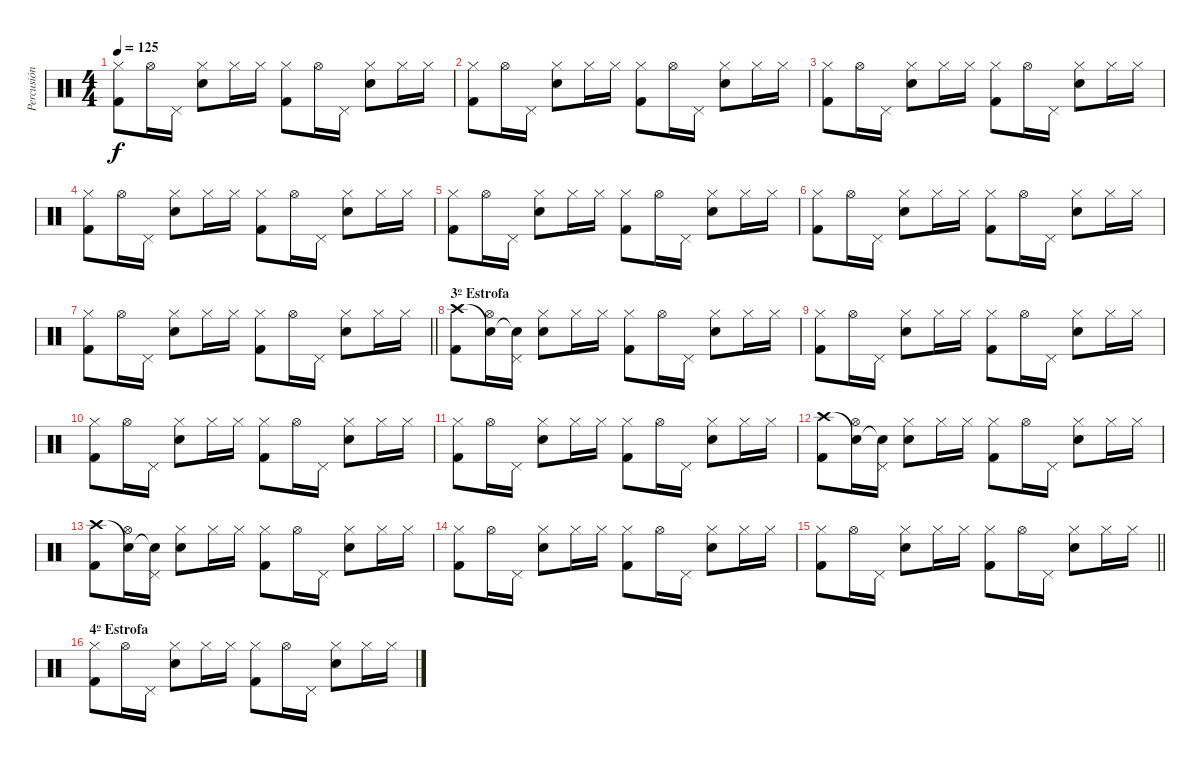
\track ("Percusión" "Percusión") {instrument percussion}
\staff {score}
\articulation defaults
\ts (4 4)
\tempo 125
\clef neutral
\ks c
("Hi-Hat (closed)" "Kick (hit) 2").8{dy f} "Hi-Hat (open)".16 "Pedal Hi-Hat (hit)".16 ("Hi-Hat (closed)" "Snare (hit) 2").8 "Hi-Hat (closed)".16 "Hi-Hat (closed)".16 ("Hi-Hat (closed)" "Kick (hit) 2").8 "Hi-Hat (open)".16 "Pedal Hi-Hat (hit)".16 ("Hi-Hat (closed)" "Snare (hit) 2").8 "Hi-Hat (closed)".16 "Hi-Hat (closed)".16 |
("Hi-Hat (closed)" "Kick (hit) 2").8 "Hi-Hat (open)".16 "Pedal Hi-Hat (hit)".16 ("Hi-Hat (closed)" "Snare (hit) 2").8 "Hi-Hat (closed)".16 "Hi-Hat (closed)".16 ("Hi-Hat (closed)" "Kick (hit) 2").8 "Hi-Hat (open)".16 "Pedal Hi-Hat (hit)".16 ("Hi-Hat (closed)" "Snare (hit) 2").8 "Hi-Hat (closed)".16 "Hi-Hat (closed)".16 |
("Hi-Hat (closed)" "Kick (hit) 2").8 "Hi-Hat (open)".16 "Pedal Hi-Hat (hit)".16 ("Hi-Hat (closed)" "Snare (hit) 2").8 "Hi-Hat (closed)".16 "Hi-Hat (closed)".16 ("Hi-Hat (closed)" "Kick (hit) 2").8 "Hi-Hat (open)".16 "Pedal Hi-Hat (hit)".16 ("Hi-Hat (closed)" "Snare (hit) 2").8 "Hi-Hat (closed)".16 "Hi-Hat (closed)".16 |
("Hi-Hat (closed)" "Kick (hit) 2").8 "Hi-Hat (open)".16 "Pedal Hi-Hat (hit)".16 ("Hi-Hat (closed)" "Snare (hit) 2").8 "Hi-Hat (closed)".16 "Hi-Hat (closed)".16 ("Hi-Hat (closed)" "Kick (hit) 2").8 "Hi-Hat (open)".16 "Pedal Hi-Hat (hit)".16 ("Hi-Hat (closed)" "Snare (hit) 2").8 "Hi-Hat (closed)".16 "Hi-Hat (closed)".16 |
("Hi-Hat (closed)" "Kick (hit) 2").8 "Hi-Hat (open)".16 "Pedal Hi-Hat (hit)".16 ("Hi-Hat (closed)" "Snare (hit) 2").8 "Hi-Hat (closed)".16 "Hi-Hat (closed)".16 ("Hi-Hat (closed)" "Kick (hit) 2").8 "Hi-Hat (open)".16 "Pedal Hi-Hat (hit)".16 ("Hi-Hat (closed)" "Snare (hit) 2").8 "Hi-Hat (closed)".16 "Hi-Hat (closed)".16 |
("Hi-Hat (closed)" "Kick (hit) 2").8 "Hi-Hat (open)".16 "Pedal Hi-Hat (hit)".16 ("Hi-Hat (closed)" "Snare (hit) 2").8 "Hi-Hat (closed)".16 "Hi-Hat (closed)".16 ("Hi-Hat (closed)" "Kick (hit) 2").8 "Hi-Hat (open)".16 "Pedal Hi-Hat (hit)".16 ("Hi-Hat (closed)" "Snare (hit) 2").8 "Hi-Hat (closed)".16 "Hi-Hat (closed)".16 |
\barLineRight lightlight
("Hi-Hat (closed)" "Kick (hit) 2").8 "Hi-Hat (open)".16 "Pedal Hi-Hat (hit)".16 ("Hi-Hat (closed)" "Snare (hit) 2").8 "Hi-Hat (closed)".16 "Hi-Hat (closed)".16 ("Hi-Hat (closed)" "Kick (hit) 2").8 "Hi-Hat (open)".16 "Pedal Hi-Hat (hit)".16 ("Hi-Hat (closed)" "Snare (hit) 2").8 "Hi-Hat (closed)".16 "Hi-Hat (closed)".16 |
\section ("" "3º Estrofa")
("Crash high (hit)" "Kick (hit) 2").8 ("Snare (hit)"{t} "Hi-Hat (open)").16 ("Snare (hit)"{t} "Pedal Hi-Hat (hit)").16 ("Hi-Hat (closed)" "Snare (hit) 2").8 "Hi-Hat (closed)".16 "Hi-Hat (closed)".16 ("Hi-Hat (closed)" "Kick (hit) 2").8 "Hi-Hat (open)".16 "Pedal Hi-Hat (hit)".16 ("Hi-Hat (closed)" "Snare (hit) 2").8 "Hi-Hat (closed)".16 "Hi-Hat (closed)".16 |
("Hi-Hat (closed)" "Kick (hit) 2").8 "Hi-Hat (open)".16 "Pedal Hi-Hat (hit)".16 ("Hi-Hat (closed)" "Snare (hit) 2").8 "Hi-Hat (closed)".16 "Hi-Hat (closed)".16 ("Hi-Hat (closed)" "Kick (hit) 2").8 "Hi-Hat (open)".16 "Pedal Hi-Hat (hit)".16 ("Hi-Hat (closed)" "Snare (hit) 2").8 "Hi-Hat (closed)".16 "Hi-Hat (closed)".16 |
("Hi-Hat (closed)" "Kick (hit) 2").8 "Hi-Hat (open)".16 "Pedal Hi-Hat (hit)".16 ("Hi-Hat (closed)" "Snare (hit) 2").8 "Hi-Hat (closed)".16 "Hi-Hat (closed)".16 ("Hi-Hat (closed)" "Kick (hit) 2").8 "Hi-Hat (open)".16 "Pedal Hi-Hat (hit)".16 ("Hi-Hat (closed)" "Snare (hit) 2").8 "Hi-Hat (closed)".16 "Hi-Hat (closed)".16 |
("Hi-Hat (closed)" "Kick (hit) 2").8 "Hi-Hat (open)".16 "Pedal Hi-Hat (hit)".16 ("Hi-Hat (closed)" "Snare (hit) 2").8 "Hi-Hat (closed)".16 "Hi-Hat (closed)".16 ("Hi-Hat (closed)" "Kick (hit) 2").8 "Hi-Hat (open)".16 "Pedal Hi-Hat (hit)".16 ("Hi-Hat (closed)" "Snare (hit) 2").8 "Hi-Hat (closed)".16 "Hi-Hat (closed)".16 |
("Crash high (hit)" "Kick (hit) 2").8 ("Snare (hit)"{t} "Hi-Hat (open)").16 ("Snare (hit)"{t} "Pedal Hi-Hat (hit)").16 ("Hi-Hat (closed)" "Snare (hit) 2").8 "Hi-Hat (closed)".16 "Hi-Hat (closed)".16 ("Hi-Hat (closed)" "Kick (hit) 2").8 "Hi-Hat (open)".16 "Pedal Hi-Hat (hit)".16 ("Hi-Hat (closed)" "Snare (hit) 2").8 "Hi-Hat (closed)".16 "Hi-Hat (closed)".16 |
("Crash high (hit)" "Kick (hit) 2").8 ("Snare (hit)"{t} "Hi-Hat (open)").16 ("Snare (hit)"{t} "Pedal Hi-Hat (hit)").16 ("Hi-Hat (closed)" "Snare (hit) 2").8 "Hi-Hat (closed)".16 "Hi-Hat (closed)".16 ("Hi-Hat (closed)" "Kick (hit) 2").8 "Hi-Hat (open)".16 "Pedal Hi-Hat (hit)".16 ("Hi-Hat (closed)" "Snare (hit) 2").8 "Hi-Hat (closed)".16 "Hi-Hat (closed)".16 |
("Hi-Hat (closed)" "Kick (hit) 2").8 "Hi-Hat (open)".16 "Pedal Hi-Hat (hit)".16 ("Hi-Hat (closed)" "Snare (hit) 2").8 "Hi-Hat (closed)".16 "Hi-Hat (closed)".16 ("Hi-Hat (closed)" "Kick (hit) 2").8 "Hi-Hat (open)".16 "Pedal Hi-Hat (hit)".16 ("Hi-Hat (closed)" "Snare (hit) 2").8 "Hi-Hat (closed)".16 "Hi-Hat (closed)".16 |
\barLineRight lightlight
("Hi-Hat (closed)" "Kick (hit) 2").8 "Hi-Hat (open)".16 "Pedal Hi-Hat (hit)".16 ("Hi-Hat (closed)" "Snare (hit) 2").8 "Hi-Hat (closed)".16 "Hi-Hat (closed)".16 ("Hi-Hat (closed)" "Kick (hit) 2").8 "Hi-Hat (open)".16 "Pedal Hi-Hat (hit)".16 ("Hi-Hat (closed)" "Snare (hit) 2").8 "Hi-Hat (closed)".16 "Hi-Hat (closed)".16 |
\section ("" "4º Estrofa")
("Hi-Hat (closed)" "Kick (hit) 2").8 "Hi-Hat (open)".16 "Pedal Hi-Hat (hit)".16 ("Hi-Hat (closed)" "Snare (hit) 2").8 "Hi-Hat (closed)".16 "Hi-Hat (closed)".16 ("Hi-Hat (closed)" "Kick (hit) 2").8 "Hi-Hat (open)".16 "Pedal Hi-Hat (hit)".16 ("Hi-Hat (closed)" "Snare (hit) 2").8 "Hi-Hat (closed)".16 "Hi-Hat (closed)".16
